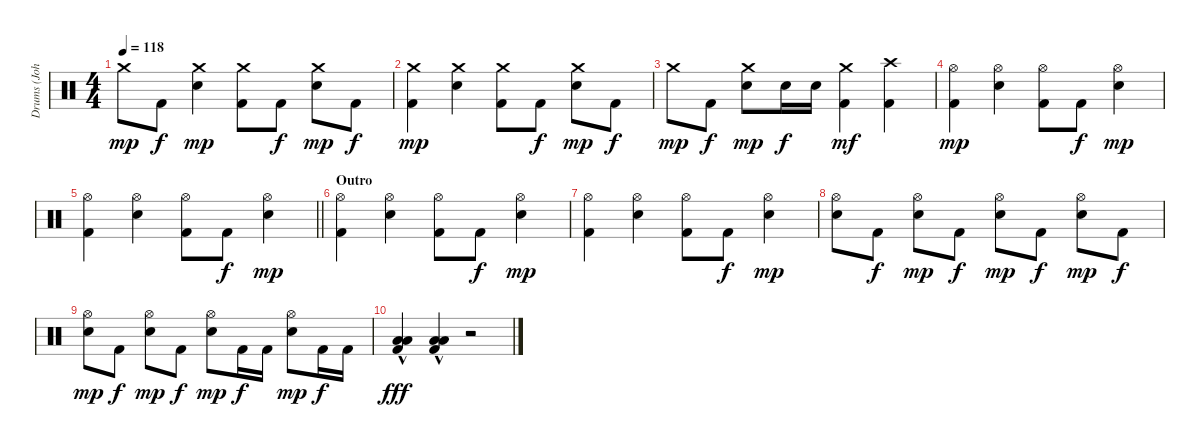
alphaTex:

\track ("Drums (John Fred Young)" "Drums (Joh") {instrument percussion}
\staff {score}
\articulation defaults
\ts (4 4)
\tempo 118
\clef neutral
\ks c "Crash medium (hit)".8{dy mp} "Kick (hit) 2".8{dy f}
("Crash medium (hit)" "Electric Snare (hit)").4{dy mp} ("Crash medium (hit)" "Kick (hit) 2").8 "Kick (hit) 2".8{dy f} ("Crash medium (hit)" "Electric Snare (hit)").8{dy mp} "Kick (hit) 2".8{dy f} |
("Crash medium (hit)" "Kick (hit) 2").4{dy mp} ("Crash medium (hit)" "Electric Snare (hit)").4 ("Crash medium (hit)" "Kick (hit) 2").8 "Kick (hit) 2".8{dy f} ("Crash medium (hit)" "Electric Snare (hit)").8{dy mp} "Kick (hit) 2".8{dy f} |
"Crash medium (hit)".8{dy mp} "Kick (hit) 2".8{dy f} ("Crash medium (hit)" "Electric Snare (hit)").8{dy mp} "Electric Snare (hit)".16{dy f} "Electric Snare (hit)".16 ("Crash medium (hit)" "Kick (hit) 2").4{dy mf} ("Crash high (hit)" "Kick (hit) 2").4 |
("Hi-Hat (open)" "Kick (hit) 2").4{dy mp} ("Hi-Hat (open)" "Electric Snare (hit)").4 ("Hi-Hat (open)" "Kick (hit) 2").8 "Kick (hit) 2".8{dy f} ("Hi-Hat (open)" "Electric Snare (hit)").4{dy mp} |
\barLineRight lightlight
("Hi-Hat (open)" "Kick (hit) 2").4 ("Hi-Hat (open)" "Electric Snare (hit)").4 ("Hi-Hat (open)" "Kick (hit) 2").8 "Kick (hit) 2".8{dy f} ("Hi-Hat (open)" "Electric Snare (hit)").4{dy mp} |
\section ("" "Outro")
("Hi-Hat (open)" "Kick (hit) 2").4 ("Hi-Hat (open)" "Electric Snare (hit)").4 ("Hi-Hat (open)" "Kick (hit) 2").8 "Kick (hit) 2".8{dy f} ("Hi-Hat (open)" "Electric Snare (hit)").4{dy mp} |
("Hi-Hat (open)" "Kick (hit) 2").4 ("Hi-Hat (open)" "Electric Snare (hit)").4 ("Hi-Hat (open)" "Kick (hit) 2").8 "Kick (hit) 2".8{dy f} ("Hi-Hat (open)" "Electric Snare (hit)").4{dy mp} |
("Hi-Hat (open)" "Electric Snare (hit)").8 "Kick (hit) 2".8{dy f} ("Hi-Hat (open)" "Electric Snare (hit)").8{dy mp} "Kick (hit) 2".8{dy f} ("Hi-Hat (open)" "Electric Snare (hit)").8{dy mp} "Kick (hit) 2".8{dy f} ("Hi-Hat (open)" "Electric Snare (hit)").8{dy mp} "Kick (hit) 2".8{dy f} |
("Hi-Hat (open)" "Electric Snare (hit)").8{dy mp} "Kick (hit) 2".8{dy f} ("Hi-Hat (open)" "Electric Snare (hit)").8{dy mp} "Kick (hit) 2".8{dy f} ("Hi-Hat (open)" "Electric Snare (hit)").8{dy mp} "Kick (hit) 2".16{dy f} "Kick (hit) 2".16 ("Hi-Hat (open)" "Electric Snare (hit)").8{dy mp} "Kick (hit) 2".16{dy f} "Kick (hit) 2".16 |
("Low Tom (hit)"{hac} "Low Floor Tom (hit)"{hac} "Kick (hit) 2"{hac}).4{dy fff} ("Low Tom (hit)"{hac} "Low Floor Tom (hit)"{hac} "Kick (hit) 2"{hac}).4 r.2
